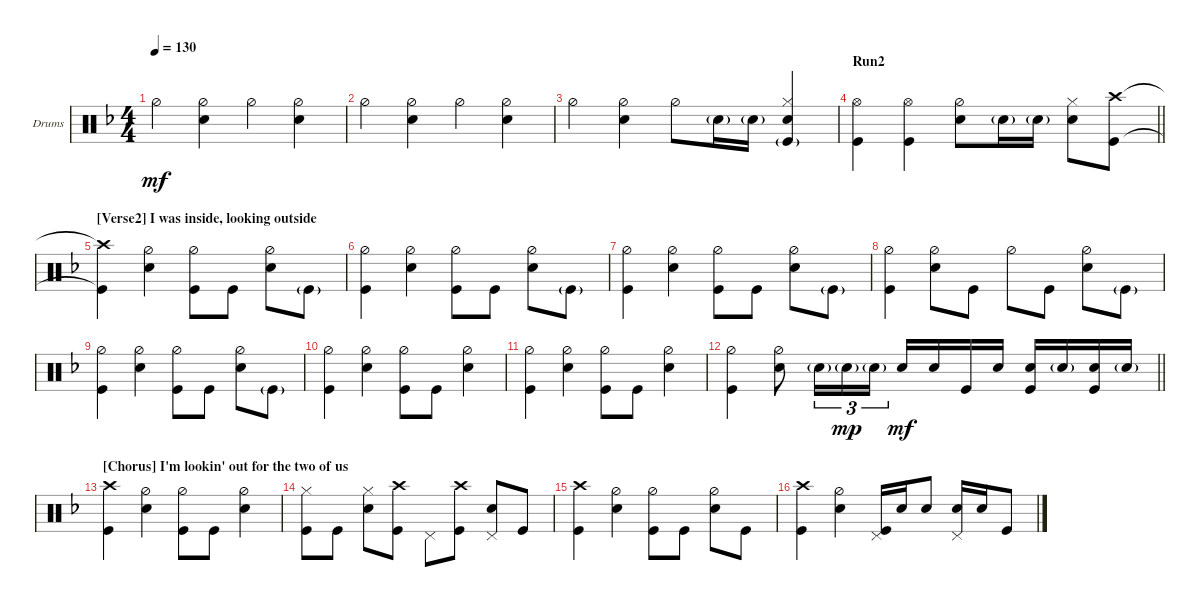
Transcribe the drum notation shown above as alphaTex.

\defaultSystemsLayout 4
\bracketExtendMode groupsimilarinstruments
\firstSystemTrackNameOrientation horizontal
\otherSystemsTrackNameOrientation horizontal
\track ("Drumkit" "Drums") {instrument percussion}
\staff {score}
\articulation defaults
\ts (4 4)
\tempo 130
\clef neutral
\ks dminor "Hi-Hat (half)".4{dy mf}
("Hi-Hat (half)" "Snare (hit) 2").4 "Hi-Hat (half)".4 ("Hi-Hat (half)" "Snare (hit) 2").4 |
"Hi-Hat (half)".4 ("Hi-Hat (half)" "Snare (hit) 2").4 "Hi-Hat (half)".4 ("Hi-Hat (half)" "Snare (hit) 2").4 |
"Hi-Hat (half)".4 ("Hi-Hat (half)" "Snare (hit) 2").4 "Hi-Hat (half)".8 "Snare (hit) 2"{g}.16 "Snare (hit) 2"{g}.16 ("Hi-Hat (closed)" "Kick (hit)"{g} "Snare (hit) 2").4 |
\section ("" "Run2")
\barLineRight lightlight
("Kick (hit)" "Hi-Hat (open)").4 ("Kick (hit)" "Hi-Hat (open)").4 ("Snare (hit) 2" "Hi-Hat (half)").8 "Snare (hit) 2"{g}.16 "Snare (hit) 2"{g}.16 ("Hi-Hat (closed)" "Snare (hit) 2").8 ("Kick (hit)" "Crash high (hit)").8 |
\section ("" "[Verse2] I was inside, looking outside")
("Kick (hit)"{t} "Crash high (hit)"{t}).4 ("Hi-Hat (half)" "Snare (hit) 2").4 ("Kick (hit)" "Hi-Hat (half)").8 "Kick (hit)".8 ("Snare (hit) 2" "Hi-Hat (half)").8 "Kick (hit)"{g}.8 |
("Kick (hit)" "Hi-Hat (half)").4 ("Hi-Hat (half)" "Snare (hit) 2").4 ("Kick (hit)" "Hi-Hat (half)").8 "Kick (hit)".8 ("Snare (hit) 2" "Hi-Hat (half)").8 "Kick (hit)"{g}.8 |
("Kick (hit)" "Hi-Hat (half)").4 ("Hi-Hat (half)" "Snare (hit) 2").4 ("Kick (hit)" "Hi-Hat (half)").8 "Kick (hit)".8 ("Snare (hit) 2" "Hi-Hat (half)").8 "Kick (hit)"{g}.8 |
("Kick (hit)" "Hi-Hat (half)").4 ("Snare (hit) 2" "Hi-Hat (half)").8 "Kick (hit)".8 "Hi-Hat (half)".8 "Kick (hit)".8 ("Snare (hit) 2" "Hi-Hat (half)").8 "Kick (hit)"{g}.8 |
("Kick (hit)" "Hi-Hat (half)").4 ("Hi-Hat (half)" "Snare (hit) 2").4 ("Kick (hit)" "Hi-Hat (half)").8 "Kick (hit)".8 ("Snare (hit) 2" "Hi-Hat (half)").8 "Kick (hit)"{g}.8 |
("Kick (hit)" "Hi-Hat (half)").4 ("Hi-Hat (half)" "Snare (hit) 2").4 ("Kick (hit)" "Hi-Hat (half)").8 "Kick (hit)".8 ("Hi-Hat (half)" "Snare (hit) 2").4 |
("Kick (hit)" "Hi-Hat (half)").4 ("Hi-Hat (half)" "Snare (hit) 2").4 ("Kick (hit)" "Hi-Hat (half)").8 "Kick (hit)".8 ("Hi-Hat (half)" "Snare (hit) 2").4 |
\barLineRight lightlight
("Kick (hit)" "Hi-Hat (half)").4 ("Hi-Hat (half)" "Snare (hit) 2").8 "Snare (hit) 2"{g}.16{tu (3 2)} "Snare (hit) 2"{g}.16{tu (3 2) dy mp} "Snare (hit) 2"{g}.16{tu (3 2)} "Snare (hit) 2".16{dy mf} "Snare (hit) 2".16 "Kick (hit)".16 "Snare (hit) 2".16 ("Kick (hit)" "Snare (hit) 2").16 "Snare (hit) 2"{g}.16 ("Snare (hit) 2" "Kick (hit)").16 "Snare (hit) 2"{g}.16 |
\section ("" "[Chorus] I'm lookin' out for the two of us")
("Kick (hit)" "Crash high (hit)").4 ("Hi-Hat (half)" "Snare (hit) 2").4 ("Kick (hit)" "Hi-Hat (half)").8 "Kick (hit)".8 ("Snare (hit) 2" "Hi-Hat (half)").4 |
("Kick (hit)" "Hi-Hat (closed)").8 "Kick (hit)".8 ("Snare (hit) 2" "Hi-Hat (closed)").8 ("Kick (hit)" "Crash high (hit)").8 "Pedal Hi-Hat (hit)".8 ("Kick (hit)" "Crash high (hit)").8 ("Snare (hit) 2" "Pedal Hi-Hat (hit)").8 "Kick (hit)".8 |
("Kick (hit)" "Crash high (hit)").4 ("Hi-Hat (half)" "Snare (hit) 2").4 ("Kick (hit)" "Hi-Hat (half)").8 "Kick (hit)".8 ("Snare (hit) 2" "Hi-Hat (half)").8 "Kick (hit)".8 |
("Kick (hit)" "Crash high (hit)").4 ("Hi-Hat (half)" "Snare (hit) 2").4 ("Kick (hit)" "Pedal Hi-Hat (hit)").16 "Snare (hit) 2".16 "Snare (hit) 2".8 ("Snare (hit) 2" "Pedal Hi-Hat (hit)").16 "Snare (hit) 2".16 "Kick (hit)".8
